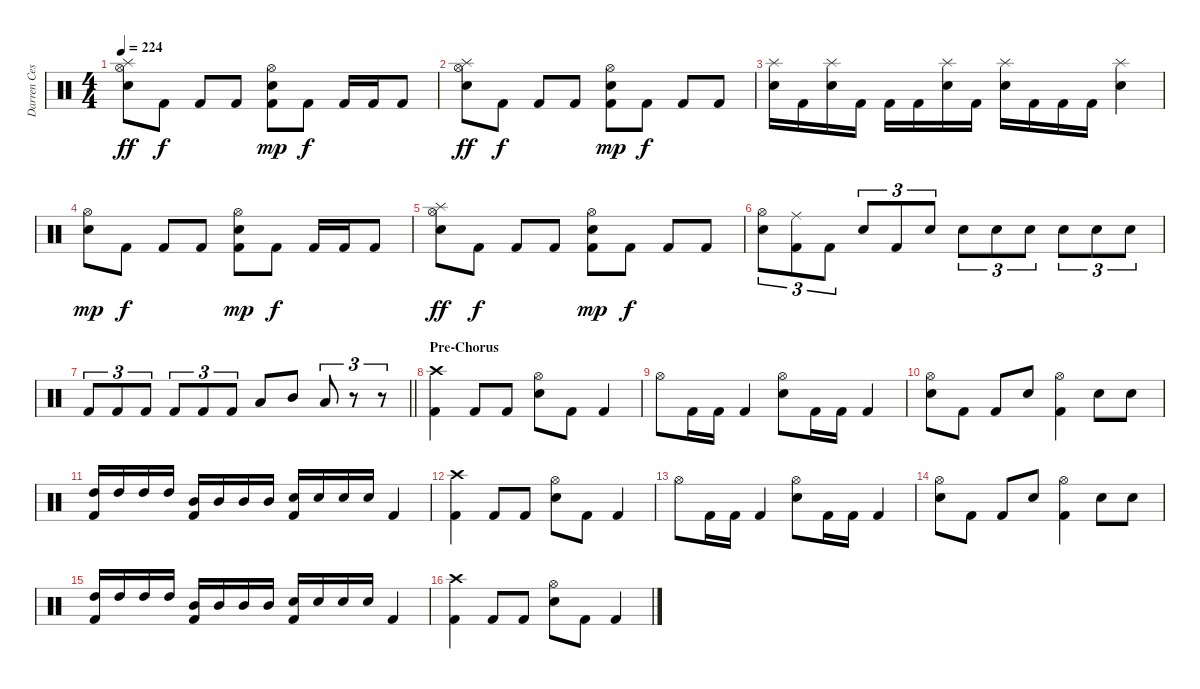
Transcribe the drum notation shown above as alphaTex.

\track ("Darren Cesca" "Darren Ces") {instrument percussion}
\staff {score}
\articulation defaults
\ts (4 4)
\tempo 224
\clef neutral
\ks c
("Hi-Hat (open)" "Splash (hit)" "Electric Snare (hit)").8{dy ff} "Kick (hit) 2".8{dy f} "Kick (hit) 2".8 "Kick (hit) 2".8 ("Hi-Hat (open)" "Electric Snare (hit)" "Kick (hit) 2").8{dy mp} "Kick (hit) 2".8{dy f} "Kick (hit) 2".16 "Kick (hit) 2".16 "Kick (hit) 2".8 |
("Hi-Hat (open)" "Splash (hit)" "Electric Snare (hit)").8{dy ff} "Kick (hit) 2".8{dy f} "Kick (hit) 2".8 "Kick (hit) 2".8 ("Hi-Hat (open)" "Electric Snare (hit)" "Kick (hit) 2").8{dy mp} "Kick (hit) 2".8{dy f} "Kick (hit) 2".8 "Kick (hit) 2".8 |
("Splash (hit)" "Electric Snare (hit)").16 "Kick (hit) 2".16 ("Splash (hit)" "Electric Snare (hit)").16 "Kick (hit) 2".16 "Kick (hit) 2".16 "Kick (hit) 2".16 ("Splash (hit)" "Electric Snare (hit)").16 "Kick (hit) 2".16 ("Splash (hit)" "Electric Snare (hit)").16 "Kick (hit) 2".16 "Kick (hit) 2".16 "Kick (hit) 2".16 ("Splash (hit)" "Electric Snare (hit)").4 |
("Hi-Hat (open)" "Electric Snare (hit)").8{dy mp} "Kick (hit) 2".8{dy f} "Kick (hit) 2".8 "Kick (hit) 2".8 ("Hi-Hat (open)" "Electric Snare (hit)" "Kick (hit) 2").8{dy mp} "Kick (hit) 2".8{dy f} "Kick (hit) 2".16 "Kick (hit) 2".16 "Kick (hit) 2".8 |
("Hi-Hat (open)" "Splash (hit)" "Electric Snare (hit)").8{dy ff} "Kick (hit) 2".8{dy f} "Kick (hit) 2".8 "Kick (hit) 2".8 ("Hi-Hat (open)" "Electric Snare (hit)" "Kick (hit) 2").8{dy mp} "Kick (hit) 2".8{dy f} "Kick (hit) 2".8 "Kick (hit) 2".8 |
("Hi-Hat (open)" "Electric Snare (hit)").8{tu (3 2)} ("Ride (middle)" "Kick (hit) 2").8{tu (3 2)} "Kick (hit) 2".8{tu (3 2)} "Electric Snare (hit)".8{tu (3 2)} "Kick (hit) 2".8{tu (3 2)} "Electric Snare (hit)".8{tu (3 2)} "Electric Snare (hit)".8{tu (3 2)} "Electric Snare (hit)".8{tu (3 2)} "Electric Snare (hit)".8{tu (3 2)} "Electric Snare (hit)".8{tu (3 2)} "Electric Snare (hit)".8{tu (3 2)} "Electric Snare (hit)".8{tu (3 2)} |
\barLineRight lightlight "Kick (hit) 2".8{tu (3 2)} "Kick (hit) 2".8{tu (3 2)} "Kick (hit) 2".8{tu (3 2)} "Kick (hit) 2".8{tu (3 2)} "Kick (hit) 2".8{tu (3 2)} "Kick (hit) 2".8{tu (3 2)} "Low Tom (hit)".8 "Mid Tom (hit)".8 "Low Tom (hit)".8{tu (3 2)}
r.8{tu (3 2)} r.8{tu (3 2)} |
\section ("" "Pre-Chorus")
("Crash high (hit)" "Kick (hit) 2").4 "Kick (hit) 2".8 "Kick (hit) 2".8 ("Hi-Hat (open)" "Electric Snare (hit)").8 "Kick (hit) 2".8 "Kick (hit) 2".4 |
"Hi-Hat (open)".8 "Kick (hit) 2".16 "Kick (hit) 2".16 "Kick (hit) 2".4 ("Hi-Hat (open)" "Electric Snare (hit)").8 "Kick (hit) 2".16 "Kick (hit) 2".16 "Kick (hit) 2".4 |
("Hi-Hat (open)" "Electric Snare (hit)").8 "Kick (hit) 2".8 "Kick (hit) 2".8 "Electric Snare (hit)".8 ("Hi-Hat (open)" "Kick (hit) 2").4 "Electric Snare (hit)".8 "Electric Snare (hit)".8 |
("High Tom (hit)" "Kick (hit) 2").16 "High Tom (hit)".16 "High Tom (hit)".16 "High Tom (hit)".16 ("Mid Tom (hit)" "Kick (hit) 2").16 "Mid Tom (hit)".16 "Mid Tom (hit)".16 "Mid Tom (hit)".16 ("Electric Snare (hit)" "Kick (hit) 2").16 "Electric Snare (hit)".16 "Electric Snare (hit)".16 "Electric Snare (hit)".16 "Kick (hit) 2".4 |
("Crash high (hit)" "Kick (hit) 2").4 "Kick (hit) 2".8 "Kick (hit) 2".8 ("Hi-Hat (open)" "Electric Snare (hit)").8 "Kick (hit) 2".8 "Kick (hit) 2".4 |
"Hi-Hat (open)".8 "Kick (hit) 2".16 "Kick (hit) 2".16 "Kick (hit) 2".4 ("Hi-Hat (open)" "Electric Snare (hit)").8 "Kick (hit) 2".16 "Kick (hit) 2".16 "Kick (hit) 2".4 |
("Hi-Hat (open)" "Electric Snare (hit)").8 "Kick (hit) 2".8 "Kick (hit) 2".8 "Electric Snare (hit)".8 ("Hi-Hat (open)" "Kick (hit) 2").4 "Electric Snare (hit)".8 "Electric Snare (hit)".8 |
("High Tom (hit)" "Kick (hit) 2").16 "High Tom (hit)".16 "High Tom (hit)".16 "High Tom (hit)".16 ("Mid Tom (hit)" "Kick (hit) 2").16 "Mid Tom (hit)".16 "Mid Tom (hit)".16 "Mid Tom (hit)".16 ("Electric Snare (hit)" "Kick (hit) 2").16 "Electric Snare (hit)".16 "Electric Snare (hit)".16 "Electric Snare (hit)".16 "Kick (hit) 2".4 |
("Crash high (hit)" "Kick (hit) 2").4 "Kick (hit) 2".8 "Kick (hit) 2".8 ("Hi-Hat (open)" "Electric Snare (hit)").8 "Kick (hit) 2".8 "Kick (hit) 2".4
